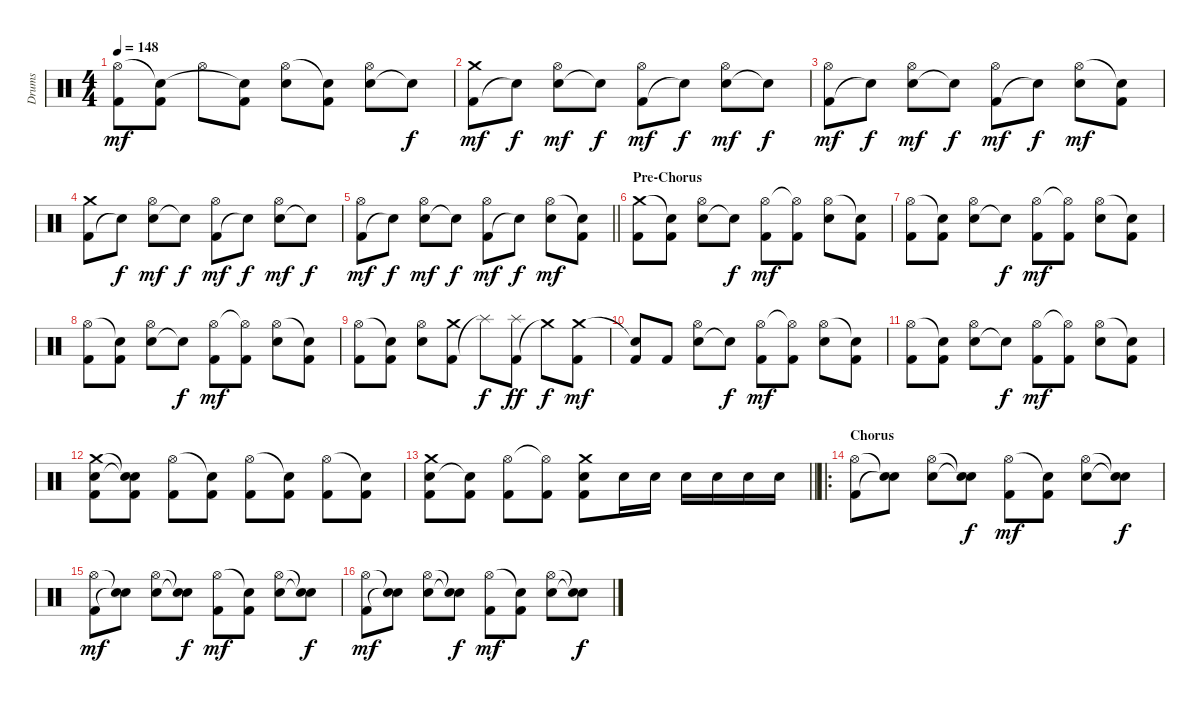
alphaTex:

\track ("Drums" "Drums") {instrument percussion}
\staff {score}
\articulation defaults
\ts (4 4)
\tempo 148
\clef neutral
\ks c
("Kick (hit) 2" "Hi-Hat (open)").8{dy mf} ("Kick (hit) 2" "Snare (hit)"{t}).8 "Hi-Hat (open)".8 ("Kick (hit) 2" "Snare (hit)"{t}).8 ("Snare (hit) 2" "Hi-Hat (open)").8 ("Kick (hit) 2" "Snare (hit)"{t}).8 ("Snare (hit) 2" "Hi-Hat (open)").8 "Snare (hit)"{t}.8{dy f} |
("Kick (hit) 2" "Crash medium (hit)").8{dy mf} "Snare (hit)"{t}.8{dy f} ("Snare (hit) 2" "Hi-Hat (open)").8{dy mf} "Snare (hit)"{t}.8{dy f} ("Kick (hit) 2" "Hi-Hat (open)").8{dy mf} "Snare (hit)"{t}.8{dy f} ("Snare (hit) 2" "Hi-Hat (open)").8{dy mf} "Snare (hit)"{t}.8{dy f} |
("Kick (hit) 2" "Hi-Hat (open)").8{dy mf} "Snare (hit)"{t}.8{dy f} ("Snare (hit) 2" "Hi-Hat (open)").8{dy mf} "Snare (hit)"{t}.8{dy f} ("Kick (hit) 2" "Hi-Hat (open)").8{dy mf} "Snare (hit)"{t}.8{dy f} ("Snare (hit) 2" "Hi-Hat (open)").8{dy mf} ("Kick (hit) 2" "Snare (hit)"{t}).8 |
("Kick (hit) 2" "Crash medium (hit)").8 "Snare (hit)"{t}.8{dy f} ("Snare (hit) 2" "Hi-Hat (open)").8{dy mf} "Snare (hit)"{t}.8{dy f} ("Kick (hit) 2" "Hi-Hat (open)").8{dy mf} "Snare (hit)"{t}.8{dy f} ("Snare (hit) 2" "Hi-Hat (open)").8{dy mf} "Snare (hit)"{t}.8{dy f} |
\barLineRight lightlight
("Kick (hit) 2" "Hi-Hat (open)").8{dy mf} "Snare (hit)"{t}.8{dy f} ("Snare (hit) 2" "Hi-Hat (open)").8{dy mf} "Snare (hit)"{t}.8{dy f} ("Kick (hit) 2" "Hi-Hat (open)").8{dy mf} "Snare (hit)"{t}.8{dy f} ("Snare (hit) 2" "Hi-Hat (open)").8{dy mf} ("Kick (hit) 2" "Snare (hit)"{t}).8 |
\section ("" "Pre-Chorus")
("Kick (hit) 2" "Crash medium (hit)").8 ("Kick (hit) 2" "Snare (hit)"{t}).8 ("Snare (hit) 2" "Hi-Hat (open)").8 "Snare (hit)"{t}.8{dy f} ("Kick (hit) 2" "Hi-Hat (open)").8{dy mf} ("Kick (hit) 2" "Hi-Hat (open)"{t}).8 ("Snare (hit) 2" "Hi-Hat (open)").8 ("Kick (hit) 2" "Snare (hit)"{t}).8 |
("Kick (hit) 2" "Hi-Hat (open)").8 ("Kick (hit) 2" "Snare (hit)"{t}).8 ("Snare (hit) 2" "Hi-Hat (open)").8 "Snare (hit)"{t}.8{dy f} ("Kick (hit) 2" "Hi-Hat (open)").8{dy mf} ("Kick (hit) 2" "Hi-Hat (open)"{t}).8 ("Snare (hit) 2" "Hi-Hat (open)").8 ("Kick (hit) 2" "Snare (hit)"{t}).8 |
("Kick (hit) 2" "Hi-Hat (open)").8 ("Kick (hit) 2" "Snare (hit)"{t}).8 ("Snare (hit) 2" "Hi-Hat (open)").8 "Snare (hit)"{t}.8{dy f} ("Kick (hit) 2" "Hi-Hat (open)").8{dy mf} ("Kick (hit) 2" "Hi-Hat (open)"{t}).8 ("Snare (hit) 2" "Hi-Hat (open)").8 ("Kick (hit) 2" "Snare (hit)"{t}).8 |
("Kick (hit) 2" "Hi-Hat (open)").8 ("Kick (hit) 2" "Snare (hit)"{t}).8 ("Snare (hit) 2" "Hi-Hat (open)").8 ("Kick (hit) 2" "Crash medium (hit)").8 "Splash (hit)"{t}.8{dy f} ("Kick (hit) 2" "Splash (hit)").8{dy ff} "Crash medium (hit)"{t}.8{dy f} ("Kick (hit) 2" "Crash medium (hit)").8{dy mf} |
("Kick (hit) 2" "Snare (hit)"{t}).8 "Kick (hit) 2".8 ("Snare (hit) 2" "Hi-Hat (open)").8 "Snare (hit)"{t}.8{dy f} ("Kick (hit) 2" "Hi-Hat (open)").8{dy mf} ("Kick (hit) 2" "Hi-Hat (open)"{t}).8 ("Snare (hit) 2" "Hi-Hat (open)").8 ("Kick (hit) 2" "Snare (hit)"{t}).8 |
("Kick (hit) 2" "Hi-Hat (open)").8 ("Kick (hit) 2" "Snare (hit)"{t}).8 ("Snare (hit) 2" "Hi-Hat (open)").8 "Snare (hit)"{t}.8{dy f} ("Kick (hit) 2" "Hi-Hat (open)").8{dy mf} ("Kick (hit) 2" "Hi-Hat (open)"{t}).8 ("Snare (hit) 2" "Hi-Hat (open)").8 ("Kick (hit) 2" "Snare (hit)"{t}).8 |
("Kick (hit) 2" "Snare (hit) 2" "Crash medium (hit)").8 ("Kick (hit) 2" "Snare (hit)"{t} "Snare (hit)"{t}).8 ("Kick (hit) 2" "Hi-Hat (open)").8 ("Kick (hit) 2" "Snare (hit)"{t}).8 ("Kick (hit) 2" "Hi-Hat (open)").8 ("Kick (hit) 2" "Snare (hit)"{t}).8 ("Kick (hit) 2" "Hi-Hat (open)").8 ("Kick (hit) 2" "Snare (hit)"{t}).8 |
\barLineRight lightlight
("Kick (hit) 2" "Snare (hit) 2" "Crash medium (hit)").8 ("Kick (hit) 2" "Snare (hit)"{t}).8 ("Kick (hit) 2" "Hi-Hat (open)").8 ("Kick (hit) 2" "Hi-Hat (open)"{t}).8 ("Kick (hit) 2" "Snare (hit) 2" "Crash medium (hit)").8 "Snare (hit) 2".16 "Snare (hit) 2".16 "Snare (hit) 2".16 "Snare (hit) 2".16 "Snare (hit) 2".16 "Snare (hit) 2".16 |
\ro
\section ("" "Chorus")
("Kick (hit) 2" "Hi-Hat (open)").8 ("Snare (hit)"{t} "Snare (hit)"{t}).8 ("Snare (hit) 2" "Hi-Hat (open)").8 ("Snare (hit)"{t} "Snare (hit)"{t}).8{dy f} ("Kick (hit) 2" "Hi-Hat (open)").8{dy mf} ("Kick (hit) 2" "Snare (hit)"{t}).8 ("Snare (hit) 2" "Hi-Hat (open)").8 ("Snare (hit)"{t} "Snare (hit)"{t}).8{dy f} |
("Kick (hit) 2" "Hi-Hat (open)").8{dy mf} ("Snare (hit)"{t} "Snare (hit)"{t}).8 ("Snare (hit) 2" "Hi-Hat (open)").8 ("Snare (hit)"{t} "Snare (hit)"{t}).8{dy f} ("Kick (hit) 2" "Hi-Hat (open)").8{dy mf} ("Kick (hit) 2" "Snare (hit)"{t}).8 ("Snare (hit) 2" "Hi-Hat (open)").8 ("Snare (hit)"{t} "Snare (hit)"{t}).8{dy f} |
("Kick (hit) 2" "Hi-Hat (open)").8{dy mf} ("Snare (hit)"{t} "Snare (hit)"{t}).8 ("Snare (hit) 2" "Hi-Hat (open)").8 ("Snare (hit)"{t} "Snare (hit)"{t}).8{dy f} ("Kick (hit) 2" "Hi-Hat (open)").8{dy mf} ("Kick (hit) 2" "Snare (hit)"{t}).8 ("Snare (hit) 2" "Hi-Hat (open)").8 ("Snare (hit)"{t} "Snare (hit)"{t}).8{dy f}
